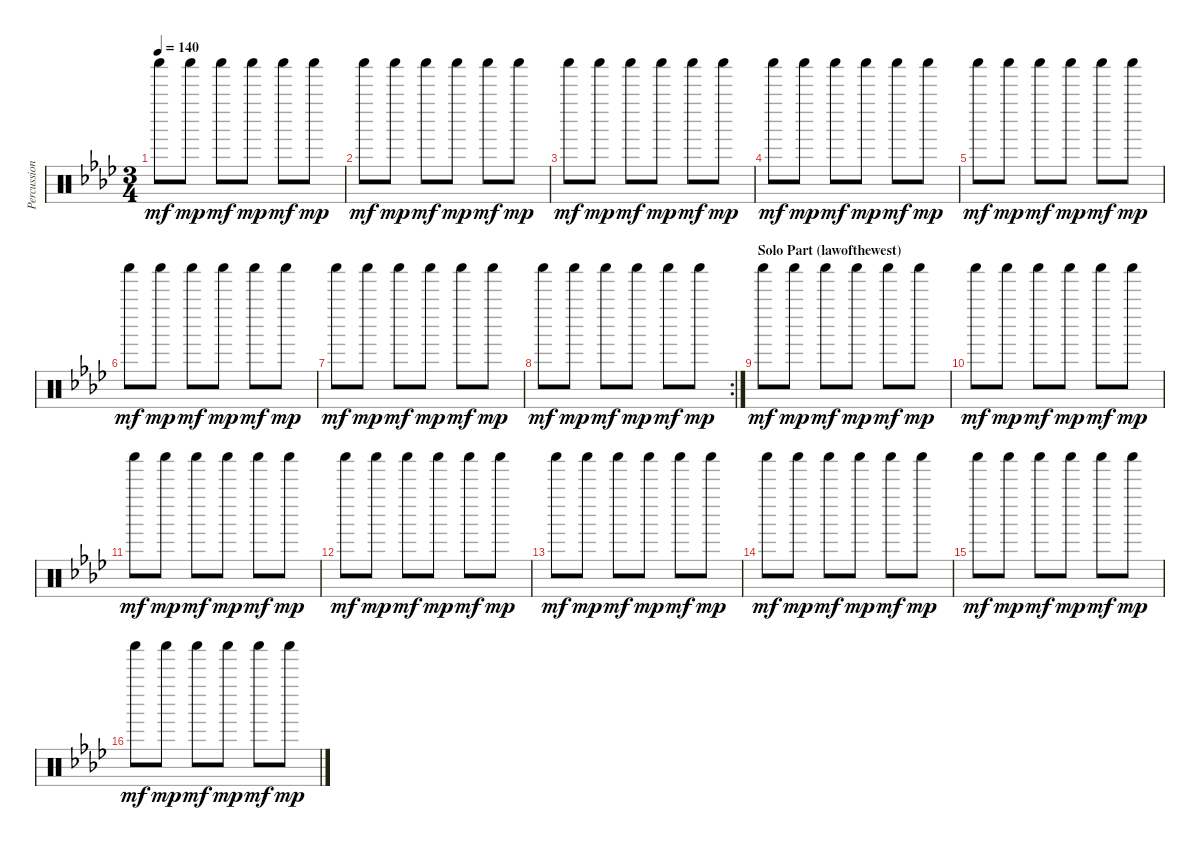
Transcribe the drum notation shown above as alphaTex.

\track ("Percussion" "Percussion") {instrument percussion}
\staff {score}
\articulation defaults
\ts (3 4)
\tempo 140
\clef neutral
\ks fminor "Shaker (hit)".8{dy mf} "Shaker (hit)".8{dy mp} "Shaker (hit)".8{dy mf} "Shaker (hit)".8{dy mp} "Shaker (hit)".8{dy mf} "Shaker (hit)".8{dy mp}
|
"Shaker (hit)".8{dy mf} "Shaker (hit)".8{dy mp} "Shaker (hit)".8{dy mf} "Shaker (hit)".8{dy mp} "Shaker (hit)".8{dy mf} "Shaker (hit)".8{dy mp} |
"Shaker (hit)".8{dy mf} "Shaker (hit)".8{dy mp} "Shaker (hit)".8{dy mf} "Shaker (hit)".8{dy mp} "Shaker (hit)".8{dy mf} "Shaker (hit)".8{dy mp} |
"Shaker (hit)".8{dy mf} "Shaker (hit)".8{dy mp} "Shaker (hit)".8{dy mf} "Shaker (hit)".8{dy mp} "Shaker (hit)".8{dy mf} "Shaker (hit)".8{dy mp} |
"Shaker (hit)".8{dy mf} "Shaker (hit)".8{dy mp} "Shaker (hit)".8{dy mf} "Shaker (hit)".8{dy mp} "Shaker (hit)".8{dy mf} "Shaker (hit)".8{dy mp} |
"Shaker (hit)".8{dy mf} "Shaker (hit)".8{dy mp} "Shaker (hit)".8{dy mf} "Shaker (hit)".8{dy mp} "Shaker (hit)".8{dy mf} "Shaker (hit)".8{dy mp} |
"Shaker (hit)".8{dy mf} "Shaker (hit)".8{dy mp} "Shaker (hit)".8{dy mf} "Shaker (hit)".8{dy mp} "Shaker (hit)".8{dy mf} "Shaker (hit)".8{dy mp} |
\rc 2 "Shaker (hit)".8{dy mf} "Shaker (hit)".8{dy mp} "Shaker (hit)".8{dy mf} "Shaker (hit)".8{dy mp} "Shaker (hit)".8{dy mf} "Shaker (hit)".8{dy mp}
|
\section ("" "Solo Part (lawofthewest)")
"Shaker (hit)".8{dy mf} "Shaker (hit)".8{dy mp} "Shaker (hit)".8{dy mf} "Shaker (hit)".8{dy mp} "Shaker (hit)".8{dy mf} "Shaker (hit)".8{dy mp} |
"Shaker (hit)".8{dy mf} "Shaker (hit)".8{dy mp} "Shaker (hit)".8{dy mf} "Shaker (hit)".8{dy mp} "Shaker (hit)".8{dy mf} "Shaker (hit)".8{dy mp} |
"Shaker (hit)".8{dy mf} "Shaker (hit)".8{dy mp} "Shaker (hit)".8{dy mf} "Shaker (hit)".8{dy mp} "Shaker (hit)".8{dy mf} "Shaker (hit)".8{dy mp} |
"Shaker (hit)".8{dy mf} "Shaker (hit)".8{dy mp} "Shaker (hit)".8{dy mf} "Shaker (hit)".8{dy mp} "Shaker (hit)".8{dy mf} "Shaker (hit)".8{dy mp} |
"Shaker (hit)".8{dy mf} "Shaker (hit)".8{dy mp} "Shaker (hit)".8{dy mf} "Shaker (hit)".8{dy mp} "Shaker (hit)".8{dy mf} "Shaker (hit)".8{dy mp} |
"Shaker (hit)".8{dy mf} "Shaker (hit)".8{dy mp} "Shaker (hit)".8{dy mf} "Shaker (hit)".8{dy mp} "Shaker (hit)".8{dy mf} "Shaker (hit)".8{dy mp} |
"Shaker (hit)".8{dy mf} "Shaker (hit)".8{dy mp} "Shaker (hit)".8{dy mf} "Shaker (hit)".8{dy mp} "Shaker (hit)".8{dy mf} "Shaker (hit)".8{dy mp} |
"Shaker (hit)".8{dy mf} "Shaker (hit)".8{dy mp} "Shaker (hit)".8{dy mf} "Shaker (hit)".8{dy mp} "Shaker (hit)".8{dy mf} "Shaker (hit)".8{dy mp}
